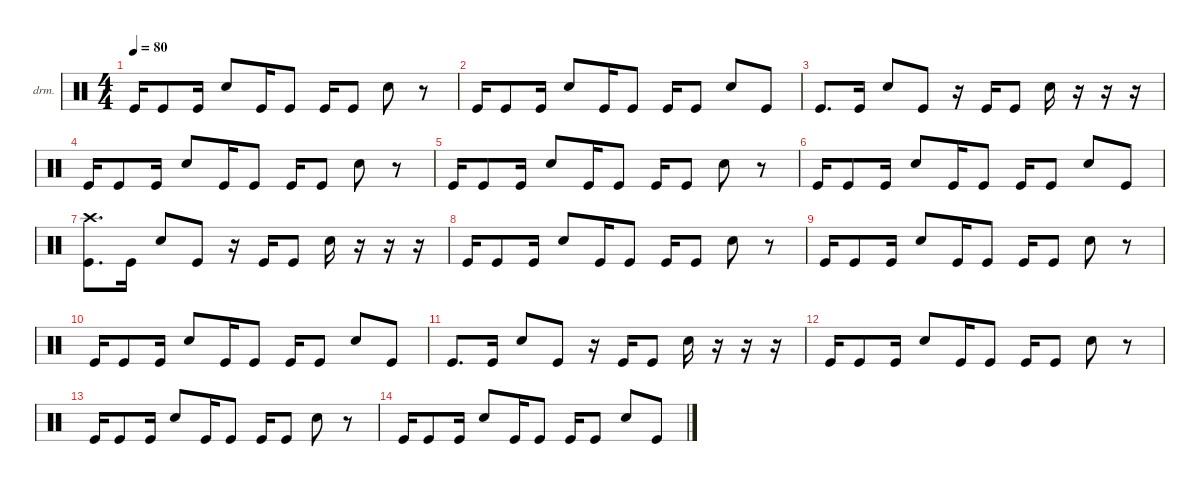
\defaultSystemsLayout 4
\hideDynamics
\bracketExtendMode nobrackets
\firstSystemTrackNameOrientation horizontal
\otherSystemsTrackNameOrientation horizontal
\track ("Drumkit" "drm.") {instrument percussion}
\staff {score}
\articulation defaults
\ts (4 4)
\tempo 80
\clef neutral
\ks c "Kick (hit)".16{dy mf} "Kick (hit)".8 "Kick (hit)".16 "Snare (hit) 2".8 "Kick (hit)".16 "Kick (hit)".8 "Kick (hit)".16 "Kick (hit)".8 "Snare (hit) 2".8
r.8 |
"Kick (hit)".16 "Kick (hit)".8 "Kick (hit)".16 "Snare (hit) 2".8 "Kick (hit)".16 "Kick (hit)".8 "Kick (hit)".16 "Kick (hit)".8 "Snare (hit) 2".8 "Kick (hit)".8 |
"Kick (hit)".8{d} "Kick (hit)".16 "Snare (hit) 2".8 "Kick (hit)".8 r.16 "Kick (hit)".16 "Kick (hit)".8 "Snare (hit) 2".16 r.16 r.16 r.16 |
"Kick (hit)".16 "Kick (hit)".8 "Kick (hit)".16 "Snare (hit) 2".8 "Kick (hit)".16 "Kick (hit)".8 "Kick (hit)".16 "Kick (hit)".8 "Snare (hit) 2".8 r.8 |
"Kick (hit)".16 "Kick (hit)".8 "Kick (hit)".16 "Snare (hit) 2".8 "Kick (hit)".16 "Kick (hit)".8 "Kick (hit)".16 "Kick (hit)".8 "Snare (hit) 2".8 r.8 |
"Kick (hit)".16 "Kick (hit)".8 "Kick (hit)".16 "Snare (hit) 2".8 "Kick (hit)".16 "Kick (hit)".8 "Kick (hit)".16 "Kick (hit)".8 "Snare (hit) 2".8 "Kick (hit)".8 |
("Kick (hit)" "Crash high (hit)").8{d} "Kick (hit)".16 "Snare (hit) 2".8 "Kick (hit)".8 r.16 "Kick (hit)".16 "Kick (hit)".8 "Snare (hit) 2".16 r.16 r.16 r.16 |
"Kick (hit)".16 "Kick (hit)".8 "Kick (hit)".16 "Snare (hit) 2".8 "Kick (hit)".16 "Kick (hit)".8 "Kick (hit)".16 "Kick (hit)".8 "Snare (hit) 2".8 r.8 |
"Kick (hit)".16 "Kick (hit)".8 "Kick (hit)".16 "Snare (hit) 2".8 "Kick (hit)".16 "Kick (hit)".8 "Kick (hit)".16 "Kick (hit)".8 "Snare (hit) 2".8 r.8 |
"Kick (hit)".16 "Kick (hit)".8 "Kick (hit)".16 "Snare (hit) 2".8 "Kick (hit)".16 "Kick (hit)".8 "Kick (hit)".16 "Kick (hit)".8 "Snare (hit) 2".8 "Kick (hit)".8 |
"Kick (hit)".8{d} "Kick (hit)".16 "Snare (hit) 2".8 "Kick (hit)".8 r.16 "Kick (hit)".16 "Kick (hit)".8 "Snare (hit) 2".16 r.16 r.16 r.16 |
"Kick (hit)".16 "Kick (hit)".8 "Kick (hit)".16 "Snare (hit) 2".8 "Kick (hit)".16 "Kick (hit)".8 "Kick (hit)".16 "Kick (hit)".8 "Snare (hit) 2".8 r.8 |
"Kick (hit)".16 "Kick (hit)".8 "Kick (hit)".16 "Snare (hit) 2".8 "Kick (hit)".16 "Kick (hit)".8 "Kick (hit)".16 "Kick (hit)".8 "Snare (hit) 2".8 r.8 |
"Kick (hit)".16 "Kick (hit)".8 "Kick (hit)".16 "Snare (hit) 2".8 "Kick (hit)".16 "Kick (hit)".8 "Kick (hit)".16 "Kick (hit)".8 "Snare (hit) 2".8 "Kick (hit)".8
